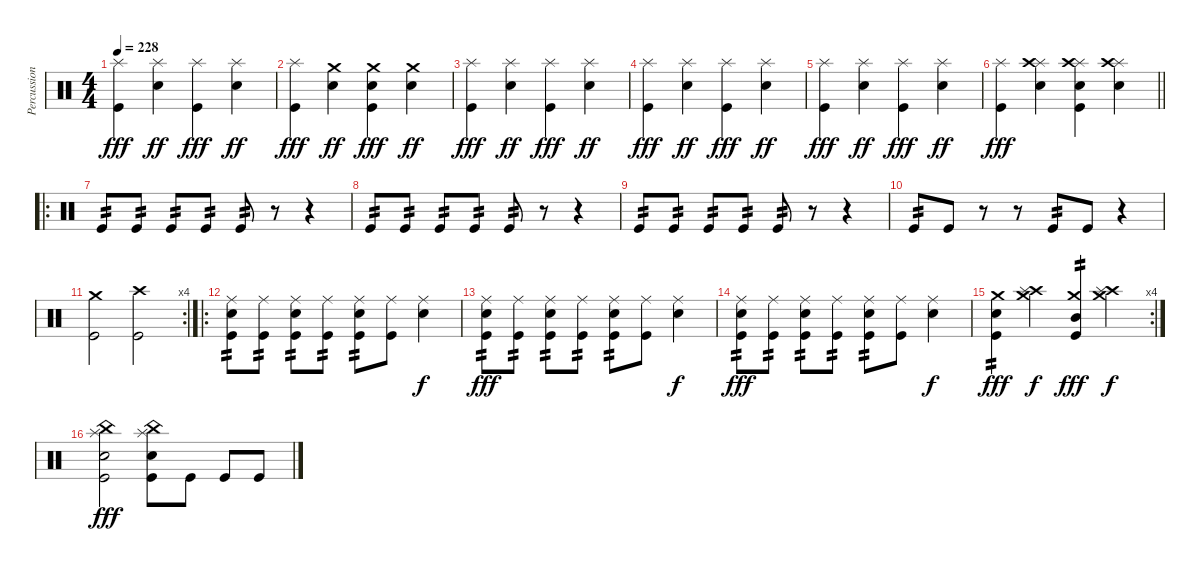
\track ("Percussion" "Percussion") {instrument percussion}
\staff {score}
\articulation defaults
\ts (4 4)
\tempo 228
\clef neutral
\ks c
("Splash (hit)" "Kick (hit)").4{dy fff} ("Splash (hit)" "Electric Snare (hit)").4{dy ff} ("Splash (hit)" "Kick (hit)").4{dy fff} ("Splash (hit)" "Electric Snare (hit)").4{dy ff} |
("Splash (hit)" "Kick (hit)").4{dy fff} ("Crash medium (hit)" "Electric Snare (hit)").4{dy ff} ("Crash medium (hit)" "Electric Snare (hit)" "Kick (hit)").4{dy fff} ("Crash medium (hit)" "Electric Snare (hit)").4{dy ff} |
("Splash (hit)" "Kick (hit)").4{dy fff} ("Splash (hit)" "Electric Snare (hit)").4{dy ff} ("Splash (hit)" "Kick (hit)").4{dy fff} ("Splash (hit)" "Electric Snare (hit)").4{dy ff} |
("Splash (hit)" "Kick (hit)").4{dy fff} ("Splash (hit)" "Electric Snare (hit)").4{dy ff} ("Splash (hit)" "Kick (hit)").4{dy fff} ("Splash (hit)" "Electric Snare (hit)").4{dy ff} |
("Splash (hit)" "Kick (hit)").4{dy fff} ("Splash (hit)" "Electric Snare (hit)").4{dy ff} ("Splash (hit)" "Kick (hit)").4{dy fff} ("Splash (hit)" "Electric Snare (hit)").4{dy ff} |
\barLineRight lightlight
("Splash (hit)" "Kick (hit)").4{dy fff} ("Splash (hit)" "Crash high (hit)" "Electric Snare (hit)").4 ("Splash (hit)" "Crash high (hit)" "Electric Snare (hit)" "Kick (hit)").4 ("Splash (hit)" "Crash high (hit)" "Electric Snare (hit)").4 |
\ro "Kick (hit)".8{tp 2} "Kick (hit)".8{tp 2} "Kick (hit)".8{tp 2} "Kick (hit)".8{tp 2} "Kick (hit)".8{tp 2}
r.8 r.4 |
"Kick (hit)".8{tp 2} "Kick (hit)".8{tp 2} "Kick (hit)".8{tp 2} "Kick (hit)".8{tp 2} "Kick (hit)".8{tp 2} r.8 r.4 |
"Kick (hit)".8{tp 2} "Kick (hit)".8{tp 2} "Kick (hit)".8{tp 2} "Kick (hit)".8{tp 2} "Kick (hit)".8{tp 2} r.8 r.4 |
"Kick (hit)".8{tp 2} "Kick (hit)".8 r.8 r.8 "Kick (hit)".8{tp 2} "Kick (hit)".8 r.4 |
\rc 4
("Crash medium (hit)" "Kick (hit)").2 ("Crash high (hit)" "Kick (hit)").2 |
\ro
("Ride (middle)" "Snare (hit) 2" "Kick (hit)").8{tp 2} ("Ride (middle)" "Kick (hit)").8{tp 2} ("Ride (middle)" "Snare (hit) 2" "Kick (hit)").8{tp 2} ("Ride (middle)" "Kick (hit)").8{tp 2} ("Ride (middle)" "Snare (hit) 2" "Kick (hit)").8{tp 2} ("Ride (middle)" "Kick (hit)").8 ("Ride (middle)" "Snare (hit) 2").4{dy f} |
("Ride (middle)" "Snare (hit) 2" "Kick (hit)").8{tp 2 dy fff} ("Ride (middle)" "Kick (hit)").8{tp 2} ("Ride (middle)" "Snare (hit) 2" "Kick (hit)").8{tp 2} ("Ride (middle)" "Kick (hit)").8{tp 2} ("Ride (middle)" "Snare (hit) 2" "Kick (hit)").8{tp 2} ("Ride (middle)" "Kick (hit)").8 ("Ride (middle)" "Snare (hit) 2").4{dy f} |
("Ride (middle)" "Snare (hit) 2" "Kick (hit)").8{tp 2 dy fff} ("Ride (middle)" "Kick (hit)").8{tp 2} ("Ride (middle)" "Snare (hit) 2" "Kick (hit)").8{tp 2} ("Ride (middle)" "Kick (hit)").8{tp 2} ("Ride (middle)" "Snare (hit) 2" "Kick (hit)").8{tp 2} ("Ride (middle)" "Kick (hit)").8 ("Ride (middle)" "Snare (hit) 2").4{dy f} |
\rc 4
("Crash medium (hit)" "Electric Snare (hit)" "Kick (hit)").4{tp 2 dy fff} ("Crash high (hit)" "Crash medium (hit)" "Splash (hit)").4{dy f} ("Crash medium (hit)" "Mid Tom (hit)" "Kick (hit)").4{tp 2 dy fff} ("Crash high (hit)" "Crash medium (hit)" "Splash (hit)").4{dy f} |
("Splash (hit)" "China (hit)" "Electric Snare (hit)" "Kick (hit)").2{dy fff} ("China (hit)" "Splash (hit)" "Electric Snare (hit)" "Kick (hit)").8 "Kick (hit)".8 "Kick (hit)".8 "Kick (hit)".8
